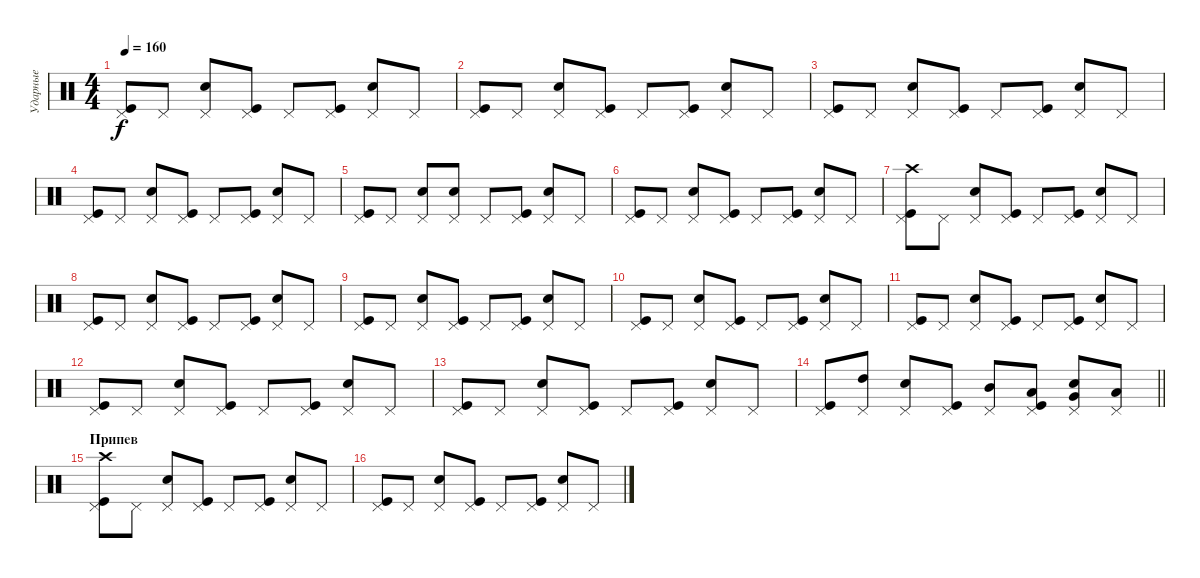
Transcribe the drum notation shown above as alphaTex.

\track ("Ударные" "Ударные") {instrument percussion}
\staff {score}
\articulation defaults
\ts (4 4)
\tempo 160
\clef neutral
\ks c
("Pedal Hi-Hat (hit)" "Kick (hit)").8{dy f} "Pedal Hi-Hat (hit)".8 ("Pedal Hi-Hat (hit)" "Snare (hit) 2").8 ("Pedal Hi-Hat (hit)" "Kick (hit)").8 "Pedal Hi-Hat (hit)".8 ("Pedal Hi-Hat (hit)" "Kick (hit)").8 ("Pedal Hi-Hat (hit)" "Snare (hit) 2").8 "Pedal Hi-Hat (hit)".8 |
("Pedal Hi-Hat (hit)" "Kick (hit)").8 "Pedal Hi-Hat (hit)".8 ("Pedal Hi-Hat (hit)" "Snare (hit) 2").8 ("Pedal Hi-Hat (hit)" "Kick (hit)").8 "Pedal Hi-Hat (hit)".8 ("Pedal Hi-Hat (hit)" "Kick (hit)").8 ("Pedal Hi-Hat (hit)" "Snare (hit) 2").8 "Pedal Hi-Hat (hit)".8 |
("Pedal Hi-Hat (hit)" "Kick (hit)").8 "Pedal Hi-Hat (hit)".8 ("Pedal Hi-Hat (hit)" "Snare (hit) 2").8 ("Pedal Hi-Hat (hit)" "Kick (hit)").8 "Pedal Hi-Hat (hit)".8 ("Pedal Hi-Hat (hit)" "Kick (hit)").8 ("Pedal Hi-Hat (hit)" "Snare (hit) 2").8 "Pedal Hi-Hat (hit)".8 |
("Pedal Hi-Hat (hit)" "Kick (hit)").8 "Pedal Hi-Hat (hit)".8 ("Pedal Hi-Hat (hit)" "Snare (hit) 2").8 ("Pedal Hi-Hat (hit)" "Kick (hit)").8 "Pedal Hi-Hat (hit)".8 ("Pedal Hi-Hat (hit)" "Kick (hit)").8 ("Pedal Hi-Hat (hit)" "Snare (hit) 2").8 "Pedal Hi-Hat (hit)".8 |
("Pedal Hi-Hat (hit)" "Kick (hit)").8 "Pedal Hi-Hat (hit)".8 ("Pedal Hi-Hat (hit)" "Snare (hit) 2").8 ("Pedal Hi-Hat (hit)" "Snare (hit) 2").8 "Pedal Hi-Hat (hit)".8 ("Pedal Hi-Hat (hit)" "Kick (hit)").8 ("Pedal Hi-Hat (hit)" "Snare (hit) 2").8 "Pedal Hi-Hat (hit)".8 |
("Pedal Hi-Hat (hit)" "Kick (hit)").8 "Pedal Hi-Hat (hit)".8 ("Pedal Hi-Hat (hit)" "Snare (hit) 2").8 ("Pedal Hi-Hat (hit)" "Kick (hit)").8 "Pedal Hi-Hat (hit)".8 ("Pedal Hi-Hat (hit)" "Kick (hit)").8 ("Pedal Hi-Hat (hit)" "Snare (hit) 2").8 "Pedal Hi-Hat (hit)".8 |
("Pedal Hi-Hat (hit)" "Crash high (hit)" "Kick (hit)").8 "Pedal Hi-Hat (hit)".8 ("Pedal Hi-Hat (hit)" "Snare (hit) 2").8 ("Pedal Hi-Hat (hit)" "Kick (hit)").8 "Pedal Hi-Hat (hit)".8 ("Pedal Hi-Hat (hit)" "Kick (hit)").8 ("Pedal Hi-Hat (hit)" "Snare (hit) 2").8 "Pedal Hi-Hat (hit)".8 |
("Pedal Hi-Hat (hit)" "Kick (hit)").8 "Pedal Hi-Hat (hit)".8 ("Pedal Hi-Hat (hit)" "Snare (hit) 2").8 ("Pedal Hi-Hat (hit)" "Kick (hit)").8 "Pedal Hi-Hat (hit)".8 ("Pedal Hi-Hat (hit)" "Kick (hit)").8 ("Pedal Hi-Hat (hit)" "Snare (hit) 2").8 "Pedal Hi-Hat (hit)".8 |
("Pedal Hi-Hat (hit)" "Kick (hit)").8 "Pedal Hi-Hat (hit)".8 ("Pedal Hi-Hat (hit)" "Snare (hit) 2").8 ("Pedal Hi-Hat (hit)" "Kick (hit)").8 "Pedal Hi-Hat (hit)".8 ("Pedal Hi-Hat (hit)" "Kick (hit)").8 ("Pedal Hi-Hat (hit)" "Snare (hit) 2").8 "Pedal Hi-Hat (hit)".8 |
("Pedal Hi-Hat (hit)" "Kick (hit)").8 "Pedal Hi-Hat (hit)".8 ("Pedal Hi-Hat (hit)" "Snare (hit) 2").8 ("Pedal Hi-Hat (hit)" "Kick (hit)").8 "Pedal Hi-Hat (hit)".8 ("Pedal Hi-Hat (hit)" "Kick (hit)").8 ("Pedal Hi-Hat (hit)" "Snare (hit) 2").8 "Pedal Hi-Hat (hit)".8 |
("Pedal Hi-Hat (hit)" "Kick (hit)").8 "Pedal Hi-Hat (hit)".8 ("Pedal Hi-Hat (hit)" "Snare (hit) 2").8 ("Pedal Hi-Hat (hit)" "Kick (hit)").8 "Pedal Hi-Hat (hit)".8 ("Pedal Hi-Hat (hit)" "Kick (hit)").8 ("Pedal Hi-Hat (hit)" "Snare (hit) 2").8 "Pedal Hi-Hat (hit)".8 |
("Pedal Hi-Hat (hit)" "Kick (hit)").8 "Pedal Hi-Hat (hit)".8 ("Pedal Hi-Hat (hit)" "Snare (hit) 2").8 ("Pedal Hi-Hat (hit)" "Kick (hit)").8 "Pedal Hi-Hat (hit)".8 ("Pedal Hi-Hat (hit)" "Kick (hit)").8 ("Pedal Hi-Hat (hit)" "Snare (hit) 2").8 "Pedal Hi-Hat (hit)".8 |
("Pedal Hi-Hat (hit)" "Kick (hit)").8 "Pedal Hi-Hat (hit)".8 ("Pedal Hi-Hat (hit)" "Snare (hit) 2").8 ("Pedal Hi-Hat (hit)" "Kick (hit)").8 "Pedal Hi-Hat (hit)".8 ("Pedal Hi-Hat (hit)" "Kick (hit)").8 ("Pedal Hi-Hat (hit)" "Snare (hit) 2").8 "Pedal Hi-Hat (hit)".8 |
\barLineRight lightlight
("Pedal Hi-Hat (hit)" "Kick (hit)").8 ("Pedal Hi-Hat (hit)" "High Tom (hit)").8 ("Pedal Hi-Hat (hit)" "Snare (hit) 2").8 ("Pedal Hi-Hat (hit)" "Kick (hit)").8 ("Pedal Hi-Hat (hit)" "Mid Tom (hit)").8 ("Pedal Hi-Hat (hit)" "Low Tom (hit)" "Kick (hit)").8 ("Pedal Hi-Hat (hit)" "Very Low Tom (hit)" "Snare (hit) 2").8 ("Pedal Hi-Hat (hit)" "Low Floor Tom (hit)").8 |
\section ("" "Припев")
("Pedal Hi-Hat (hit)" "Crash high (hit)" "Kick (hit)").8 "Pedal Hi-Hat (hit)".8 ("Pedal Hi-Hat (hit)" "Snare (hit) 2").8 ("Pedal Hi-Hat (hit)" "Kick (hit)").8 "Pedal Hi-Hat (hit)".8 ("Pedal Hi-Hat (hit)" "Kick (hit)").8 ("Pedal Hi-Hat (hit)" "Snare (hit) 2").8 "Pedal Hi-Hat (hit)".8 |
("Pedal Hi-Hat (hit)" "Kick (hit)").8 "Pedal Hi-Hat (hit)".8 ("Pedal Hi-Hat (hit)" "Snare (hit) 2").8 ("Pedal Hi-Hat (hit)" "Kick (hit)").8 "Pedal Hi-Hat (hit)".8 ("Pedal Hi-Hat (hit)" "Kick (hit)").8 ("Pedal Hi-Hat (hit)" "Snare (hit) 2").8 "Pedal Hi-Hat (hit)".8
